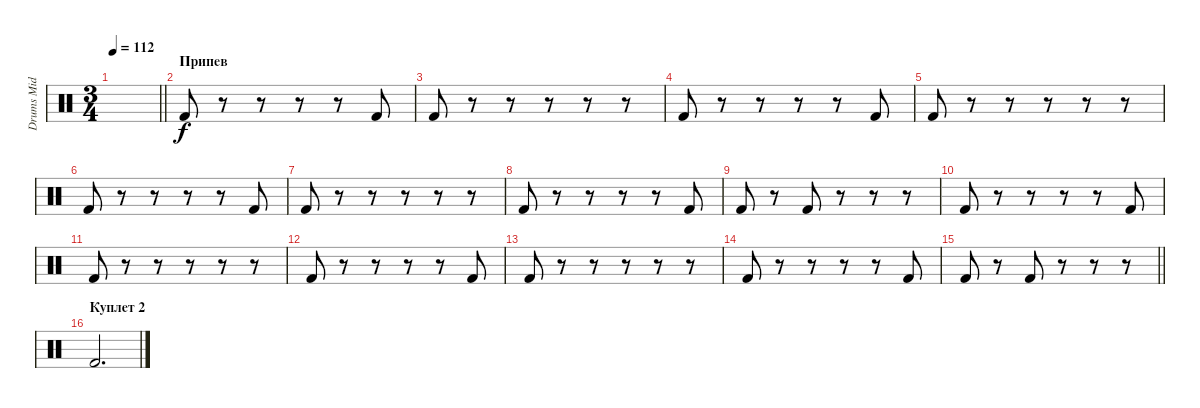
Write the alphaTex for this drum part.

\track ("Drums Mid" "Drums Mid") {instrument percussion}
\staff {score}
\articulation defaults
\ts (3 4)
\tempo 112
\clef neutral
\barLineRight lightlight
\ks c
|
\section ("" "Припев")
"Kick (hit) 2".8 r.8 r.8 r.8 r.8 "Kick (hit) 2".8 |
"Kick (hit) 2".8 r.8 r.8 r.8 r.8 r.8 |
"Kick (hit) 2".8 r.8 r.8 r.8 r.8 "Kick (hit) 2".8 |
"Kick (hit) 2".8 r.8 r.8 r.8 r.8 r.8 |
"Kick (hit) 2".8 r.8 r.8 r.8 r.8 "Kick (hit) 2".8 |
"Kick (hit) 2".8 r.8 r.8 r.8 r.8 r.8 |
"Kick (hit) 2".8 r.8 r.8 r.8 r.8 "Kick (hit) 2".8 |
"Kick (hit) 2".8 r.8 "Kick (hit) 2".8 r.8 r.8 r.8 |
"Kick (hit) 2".8 r.8 r.8 r.8 r.8 "Kick (hit) 2".8 |
"Kick (hit) 2".8 r.8 r.8 r.8 r.8 r.8 |
"Kick (hit) 2".8 r.8 r.8 r.8 r.8 "Kick (hit) 2".8 |
"Kick (hit) 2".8 r.8 r.8 r.8 r.8 r.8 |
"Kick (hit) 2".8 r.8 r.8 r.8 r.8 "Kick (hit) 2".8 |
\barLineRight lightlight "Kick (hit) 2".8
r.8 "Kick (hit) 2".8 r.8 r.8 r.8 |
\section ("" "Куплет 2")
"Kick (hit) 2".2{d}
